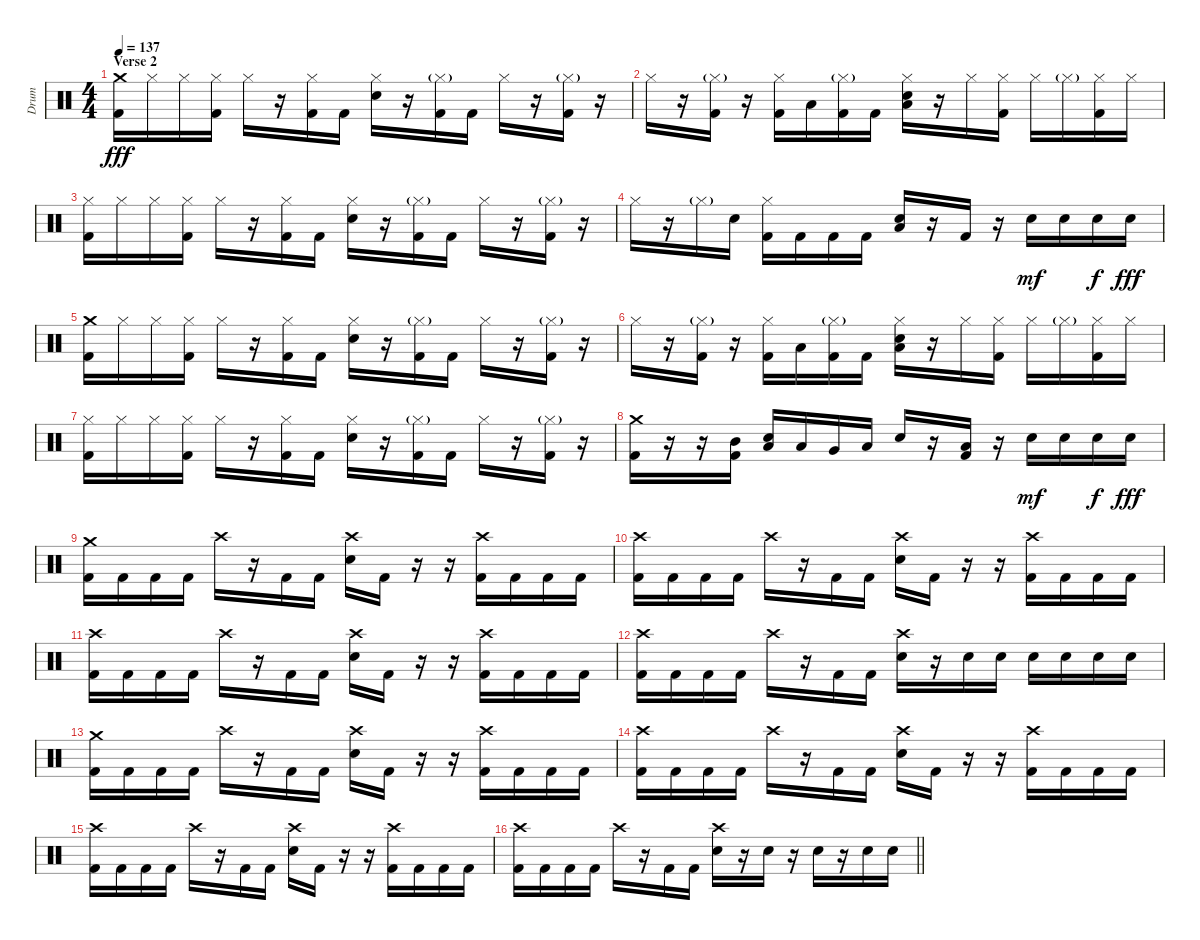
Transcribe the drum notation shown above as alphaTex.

\track ("Drum" "Drum") {instrument percussion}
\staff {score}
\articulation defaults
\ts (4 4)
\section ("" "Verse 2")
\tempo 137
\clef neutral
\ks c
("Crash medium (hit)" "Kick (hit) 2").16{dy fff} "Hi-Hat (closed)".16 "Hi-Hat (closed)".16 ("Hi-Hat (closed)" "Kick (hit) 2").16 "Hi-Hat (closed)".16 r.16 ("Hi-Hat (closed)" "Kick (hit) 2").16 "Kick (hit) 2".16 ("Hi-Hat (closed)" "Electric Snare (hit)").16 r.16 ("Hi-Hat (closed)"{g} "Kick (hit) 2").16 "Kick (hit) 2".16 "Hi-Hat (closed)".16 r.16 ("Hi-Hat (closed)"{g} "Kick (hit) 2").16 r.16 |
"Hi-Hat (closed)".16 r.16 ("Hi-Hat (closed)"{g} "Kick (hit) 2").16 r.16 ("Hi-Hat (closed)" "Kick (hit) 2").16 "Low Tom (hit)".16 ("Hi-Hat (closed)"{g} "Kick (hit) 2").16 "Kick (hit) 2".16 ("Hi-Hat (closed)" "Low Floor Tom (hit)" "Electric Snare (hit)").16 r.16 "Hi-Hat (closed)".16 ("Hi-Hat (closed)" "Kick (hit) 2").16 "Hi-Hat (closed)".16 "Hi-Hat (closed)"{g}.16 ("Hi-Hat (closed)" "Kick (hit) 2").16 "Hi-Hat (closed)".16 |
("Hi-Hat (closed)" "Kick (hit) 2").16 "Hi-Hat (closed)".16 "Hi-Hat (closed)".16 ("Hi-Hat (closed)" "Kick (hit) 2").16 "Hi-Hat (closed)".16 r.16 ("Hi-Hat (closed)" "Kick (hit) 2").16 "Kick (hit) 2".16 ("Hi-Hat (closed)" "Electric Snare (hit)").16 r.16 ("Hi-Hat (closed)"{g} "Kick (hit) 2").16 "Kick (hit) 2".16 "Hi-Hat (closed)".16 r.16 ("Hi-Hat (closed)"{g} "Kick (hit) 2").16 r.16 |
"Hi-Hat (closed)".16 r.16 "Hi-Hat (closed)"{g}.16 "Electric Snare (hit)".16 ("Hi-Hat (closed)" "Kick (hit) 2").16 "Kick (hit) 2".16 "Kick (hit) 2".16 "Kick (hit) 2".16 ("Low Floor Tom (hit)" "Electric Snare (hit)").16 r.16 "Kick (hit) 2".16 r.16 "Electric Snare (hit)".16{dy mf} "Electric Snare (hit)".16 "Electric Snare (hit)".16{dy f} "Electric Snare (hit)".16{dy fff} |
("Crash medium (hit)" "Kick (hit) 2").16 "Hi-Hat (closed)".16 "Hi-Hat (closed)".16 ("Hi-Hat (closed)" "Kick (hit) 2").16 "Hi-Hat (closed)".16 r.16 ("Hi-Hat (closed)" "Kick (hit) 2").16 "Kick (hit) 2".16 ("Hi-Hat (closed)" "Electric Snare (hit)").16 r.16 ("Hi-Hat (closed)"{g} "Kick (hit) 2").16 "Kick (hit) 2".16 "Hi-Hat (closed)".16 r.16 ("Hi-Hat (closed)"{g} "Kick (hit) 2").16 r.16 |
"Hi-Hat (closed)".16 r.16 ("Hi-Hat (closed)"{g} "Kick (hit) 2").16 r.16 ("Hi-Hat (closed)" "Kick (hit) 2").16 "Low Tom (hit)".16 ("Hi-Hat (closed)"{g} "Kick (hit) 2").16 "Kick (hit) 2".16 ("Hi-Hat (closed)" "Low Floor Tom (hit)" "Electric Snare (hit)").16 r.16 "Hi-Hat (closed)".16 ("Hi-Hat (closed)" "Kick (hit) 2").16 "Hi-Hat (closed)".16 "Hi-Hat (closed)"{g}.16 ("Hi-Hat (closed)" "Kick (hit) 2").16 "Hi-Hat (closed)".16 |
("Hi-Hat (closed)" "Kick (hit) 2").16 "Hi-Hat (closed)".16 "Hi-Hat (closed)".16 ("Hi-Hat (closed)" "Kick (hit) 2").16 "Hi-Hat (closed)".16 r.16 ("Hi-Hat (closed)" "Kick (hit) 2").16 "Kick (hit) 2".16 ("Hi-Hat (closed)" "Electric Snare (hit)").16 r.16 ("Hi-Hat (closed)"{g} "Kick (hit) 2").16 "Kick (hit) 2".16 "Hi-Hat (closed)".16 r.16 ("Hi-Hat (closed)"{g} "Kick (hit) 2").16 r.16 |
("Crash medium (hit)" "Kick (hit) 2").16 r.16 r.16 ("Mid Tom (hit)" "Kick (hit) 2").16 ("Low Floor Tom (hit)" "Electric Snare (hit)").16 "Low Tom (hit)".16 "Very Low Tom (hit)".16 "Low Floor Tom (hit)".16 "Electric Snare (hit)".16 r.16 ("Low Floor Tom (hit)" "Kick (hit) 2").16 r.16 "Electric Snare (hit)".16{dy mf} "Electric Snare (hit)".16 "Electric Snare (hit)".16{dy f} "Electric Snare (hit)".16{dy fff} |
("Crash medium (hit)" "Kick (hit) 2").16 "Kick (hit) 2".16 "Kick (hit) 2".16 "Kick (hit) 2".16 "Crash high (hit)".16 r.16 "Kick (hit) 2".16 "Kick (hit) 2".16 ("Crash high (hit)" "Electric Snare (hit)").16 "Kick (hit) 2".16 r.16 r.16 ("Crash high (hit)" "Kick (hit) 2").16 "Kick (hit) 2".16 "Kick (hit) 2".16 "Kick (hit) 2".16 |
("Crash high (hit)" "Kick (hit) 2").16 "Kick (hit) 2".16 "Kick (hit) 2".16 "Kick (hit) 2".16 "Crash high (hit)".16 r.16 "Kick (hit) 2".16 "Kick (hit) 2".16 ("Crash high (hit)" "Electric Snare (hit)").16 "Kick (hit) 2".16 r.16 r.16 ("Crash high (hit)" "Kick (hit) 2").16 "Kick (hit) 2".16 "Kick (hit) 2".16 "Kick (hit) 2".16 |
("Crash high (hit)" "Kick (hit) 2").16 "Kick (hit) 2".16 "Kick (hit) 2".16 "Kick (hit) 2".16 "Crash high (hit)".16 r.16 "Kick (hit) 2".16 "Kick (hit) 2".16 ("Crash high (hit)" "Electric Snare (hit)").16 "Kick (hit) 2".16 r.16 r.16 ("Crash high (hit)" "Kick (hit) 2").16 "Kick (hit) 2".16 "Kick (hit) 2".16 "Kick (hit) 2".16 |
("Crash high (hit)" "Kick (hit) 2").16 "Kick (hit) 2".16 "Kick (hit) 2".16 "Kick (hit) 2".16 "Crash high (hit)".16 r.16 "Kick (hit) 2".16 "Kick (hit) 2".16 ("Crash high (hit)" "Electric Snare (hit)").16 r.16 "Electric Snare (hit)".16 "Electric Snare (hit)".16 "Electric Snare (hit)".16 "Electric Snare (hit)".16 "Electric Snare (hit)".16 "Electric Snare (hit)".16 |
("Crash medium (hit)" "Kick (hit) 2").16 "Kick (hit) 2".16 "Kick (hit) 2".16 "Kick (hit) 2".16 "Crash high (hit)".16 r.16 "Kick (hit) 2".16 "Kick (hit) 2".16 ("Crash high (hit)" "Electric Snare (hit)").16 "Kick (hit) 2".16 r.16 r.16 ("Crash high (hit)" "Kick (hit) 2").16 "Kick (hit) 2".16 "Kick (hit) 2".16 "Kick (hit) 2".16 |
("Crash high (hit)" "Kick (hit) 2").16 "Kick (hit) 2".16 "Kick (hit) 2".16 "Kick (hit) 2".16 "Crash high (hit)".16 r.16 "Kick (hit) 2".16 "Kick (hit) 2".16 ("Crash high (hit)" "Electric Snare (hit)").16 "Kick (hit) 2".16 r.16 r.16 ("Crash high (hit)" "Kick (hit) 2").16 "Kick (hit) 2".16 "Kick (hit) 2".16 "Kick (hit) 2".16 |
("Crash high (hit)" "Kick (hit) 2").16 "Kick (hit) 2".16 "Kick (hit) 2".16 "Kick (hit) 2".16 "Crash high (hit)".16 r.16 "Kick (hit) 2".16 "Kick (hit) 2".16 ("Crash high (hit)" "Electric Snare (hit)").16 "Kick (hit) 2".16 r.16 r.16 ("Crash high (hit)" "Kick (hit) 2").16 "Kick (hit) 2".16 "Kick (hit) 2".16 "Kick (hit) 2".16 |
\barLineRight lightlight
("Crash high (hit)" "Kick (hit) 2").16 "Kick (hit) 2".16 "Kick (hit) 2".16 "Kick (hit) 2".16 "Crash high (hit)".16 r.16 "Kick (hit) 2".16 "Kick (hit) 2".16 ("Crash high (hit)" "Electric Snare (hit)").16 r.16 "Electric Snare (hit)".16 r.16 "Electric Snare (hit)".16 r.16 "Electric Snare (hit)".16 "Electric Snare (hit)".16
